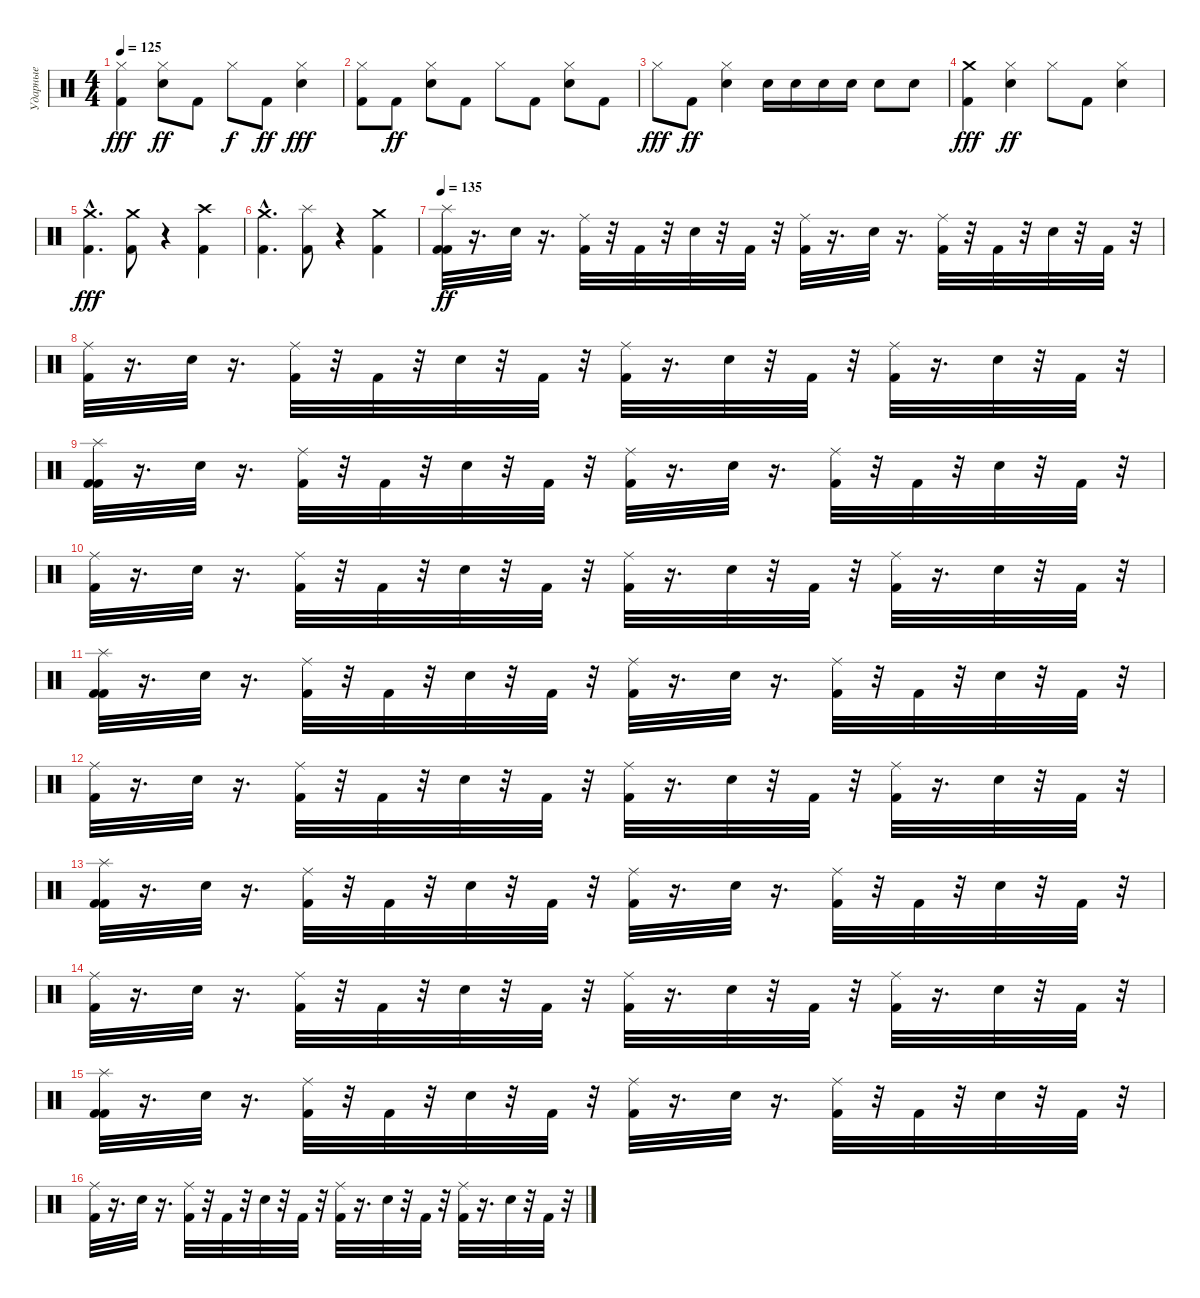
\track ("Ударные" "Ударные") {instrument percussion}
\staff {score}
\articulation defaults
\ts (4 4)
\tempo 125
\clef neutral
\ks c
("Kick (hit) 2" "Hi-Hat (closed)").4{dy fff} ("Electric Snare (hit)" "Hi-Hat (closed)").8{dy ff} "Kick (hit) 2".8 "Hi-Hat (closed)".8{dy f} "Kick (hit) 2".8{dy ff} ("Electric Snare (hit)" "Hi-Hat (closed)").4{dy fff} |
("Kick (hit) 2" "Hi-Hat (closed)").8 "Kick (hit) 2".8{dy ff} ("Electric Snare (hit)" "Hi-Hat (closed)").8 "Kick (hit) 2".8 "Hi-Hat (closed)".8 "Kick (hit) 2".8 ("Electric Snare (hit)" "Hi-Hat (closed)").8 "Kick (hit) 2".8 |
"Hi-Hat (closed)".8{dy fff} "Kick (hit) 2".8{dy ff} ("Electric Snare (hit)" "Hi-Hat (closed)").4 "Electric Snare (hit)".16 "Electric Snare (hit)".16 "Electric Snare (hit)".16 "Electric Snare (hit)".16 "Electric Snare (hit)".8 "Electric Snare (hit)".8 |
("Kick (hit) 2" "Crash medium (hit)").4{dy fff} ("Electric Snare (hit)" "Hi-Hat (closed)").4{dy ff} "Hi-Hat (closed)".8 "Kick (hit) 2".8 ("Electric Snare (hit)" "Hi-Hat (closed)").4 |
("Kick (hit) 2"{hac} "Crash medium (hit)"{hac}).4{d dy fff} ("Kick (hit) 2" "Crash medium (hit)").8 r.4 ("Kick (hit) 2" "Crash high (hit)").4 |
("Kick (hit) 2"{hac} "Crash medium (hit)"{hac}).4{d} ("Kick (hit) 2" "Splash (hit)").8 r.4 ("Kick (hit) 2" "Crash medium (hit)").4 |
\tempo 135
("Splash (hit)" "Kick (hit) 2" "Kick (hit) 2").32{dy ff} r.16{d} "Electric Snare (hit)".32 r.16{d} ("Kick (hit) 2" "Ride (middle)").32 r.32 "Kick (hit) 2".32 r.32 "Electric Snare (hit)".32 r.32 "Kick (hit) 2".32 r.32 ("Kick (hit) 2" "Ride (middle)").32 r.16{d} "Electric Snare (hit)".32 r.16{d} ("Ride (middle)" "Kick (hit) 2").32 r.32 "Kick (hit) 2".32 r.32 "Electric Snare (hit)".32 r.32 "Kick (hit) 2".32 r.32 |
("Ride (middle)" "Kick (hit) 2").32 r.16{d} "Electric Snare (hit)".32 r.16{d} ("Ride (middle)" "Kick (hit) 2").32 r.32 "Kick (hit) 2".32 r.32 "Electric Snare (hit)".32 r.32 "Kick (hit) 2".32 r.32 ("Kick (hit) 2" "Ride (middle)").32 r.16{d} "Electric Snare (hit)".32 r.32 "Kick (hit) 2".32 r.32 ("Ride (middle)" "Kick (hit) 2").32 r.16{d} "Electric Snare (hit)".32 r.32 "Kick (hit) 2".32 r.32 |
("Kick (hit) 2" "Kick (hit) 2" "Splash (hit)").32 r.16{d} "Electric Snare (hit)".32 r.16{d} ("Ride (middle)" "Kick (hit) 2").32 r.32 "Kick (hit) 2".32 r.32 "Electric Snare (hit)".32 r.32 "Kick (hit) 2".32 r.32 ("Ride (middle)" "Kick (hit) 2").32 r.16{d} "Electric Snare (hit)".32 r.16{d} ("Ride (middle)" "Kick (hit) 2").32 r.32 "Kick (hit) 2".32 r.32 "Electric Snare (hit)".32 r.32 "Kick (hit) 2".32 r.32 |
("Ride (middle)" "Kick (hit) 2").32 r.16{d} "Electric Snare (hit)".32 r.16{d} ("Ride (middle)" "Kick (hit) 2").32 r.32 "Kick (hit) 2".32 r.32 "Electric Snare (hit)".32 r.32 "Kick (hit) 2".32 r.32 ("Ride (middle)" "Kick (hit) 2").32 r.16{d} "Electric Snare (hit)".32 r.32 "Kick (hit) 2".32 r.32 ("Ride (middle)" "Kick (hit) 2").32 r.16{d} "Electric Snare (hit)".32 r.32 "Kick (hit) 2".32 r.32 |
("Splash (hit)" "Kick (hit) 2" "Kick (hit) 2").32 r.16{d} "Electric Snare (hit)".32 r.16{d} ("Kick (hit) 2" "Ride (middle)").32 r.32 "Kick (hit) 2".32 r.32 "Electric Snare (hit)".32 r.32 "Kick (hit) 2".32 r.32 ("Kick (hit) 2" "Ride (middle)").32 r.16{d} "Electric Snare (hit)".32 r.16{d} ("Ride (middle)" "Kick (hit) 2").32 r.32 "Kick (hit) 2".32 r.32 "Electric Snare (hit)".32 r.32 "Kick (hit) 2".32 r.32 |
("Ride (middle)" "Kick (hit) 2").32 r.16{d} "Electric Snare (hit)".32 r.16{d} ("Ride (middle)" "Kick (hit) 2").32 r.32 "Kick (hit) 2".32 r.32 "Electric Snare (hit)".32 r.32 "Kick (hit) 2".32 r.32 ("Kick (hit) 2" "Ride (middle)").32 r.16{d} "Electric Snare (hit)".32 r.32 "Kick (hit) 2".32 r.32 ("Ride (middle)" "Kick (hit) 2").32 r.16{d} "Electric Snare (hit)".32 r.32 "Kick (hit) 2".32 r.32 |
("Kick (hit) 2" "Kick (hit) 2" "Splash (hit)").32 r.16{d} "Electric Snare (hit)".32 r.16{d} ("Ride (middle)" "Kick (hit) 2").32 r.32 "Kick (hit) 2".32 r.32 "Electric Snare (hit)".32 r.32 "Kick (hit) 2".32 r.32 ("Ride (middle)" "Kick (hit) 2").32 r.16{d} "Electric Snare (hit)".32 r.16{d} ("Ride (middle)" "Kick (hit) 2").32 r.32 "Kick (hit) 2".32 r.32 "Electric Snare (hit)".32 r.32 "Kick (hit) 2".32 r.32 |
("Ride (middle)" "Kick (hit) 2").32 r.16{d} "Electric Snare (hit)".32 r.16{d} ("Ride (middle)" "Kick (hit) 2").32 r.32 "Kick (hit) 2".32 r.32 "Electric Snare (hit)".32 r.32 "Kick (hit) 2".32 r.32 ("Ride (middle)" "Kick (hit) 2").32 r.16{d} "Electric Snare (hit)".32 r.32 "Kick (hit) 2".32 r.32 ("Ride (middle)" "Kick (hit) 2").32 r.16{d} "Electric Snare (hit)".32 r.32 "Kick (hit) 2".32 r.32 |
("Splash (hit)" "Kick (hit) 2" "Kick (hit) 2").32 r.16{d} "Electric Snare (hit)".32 r.16{d} ("Kick (hit) 2" "Ride (middle)").32 r.32 "Kick (hit) 2".32 r.32 "Electric Snare (hit)".32 r.32 "Kick (hit) 2".32 r.32 ("Kick (hit) 2" "Ride (middle)").32 r.16{d} "Electric Snare (hit)".32 r.16{d} ("Ride (middle)" "Kick (hit) 2").32 r.32 "Kick (hit) 2".32 r.32 "Electric Snare (hit)".32 r.32 "Kick (hit) 2".32 r.32 |
("Ride (middle)" "Kick (hit) 2").32 r.16{d} "Electric Snare (hit)".32 r.16{d} ("Ride (middle)" "Kick (hit) 2").32 r.32 "Kick (hit) 2".32 r.32 "Electric Snare (hit)".32 r.32 "Kick (hit) 2".32 r.32 ("Kick (hit) 2" "Ride (middle)").32 r.16{d} "Electric Snare (hit)".32 r.32 "Kick (hit) 2".32 r.32 ("Ride (middle)" "Kick (hit) 2").32 r.16{d} "Electric Snare (hit)".32 r.32 "Kick (hit) 2".32 r.32
